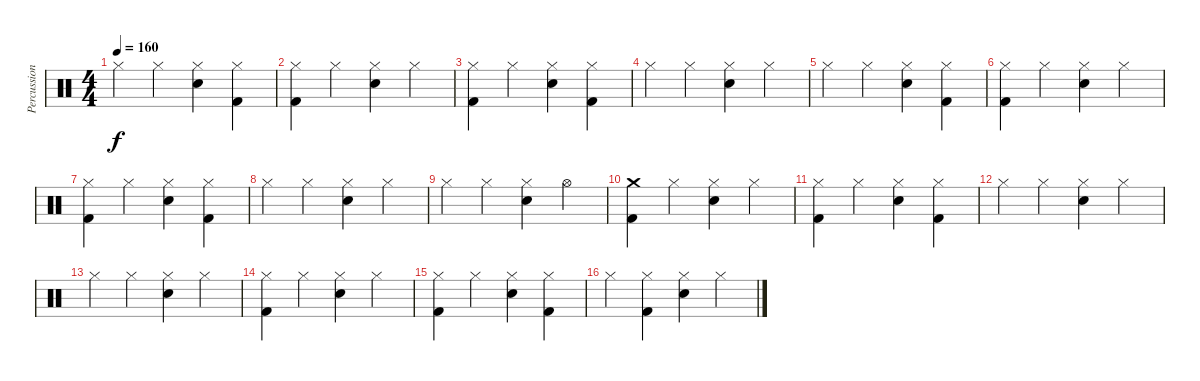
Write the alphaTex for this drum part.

\track ("Percussion" "Percussion") {instrument percussion}
\staff {score}
\articulation defaults
\ts (4 4)
\tempo 160
\clef neutral
\ks c "Hi-Hat (closed)".4{dy f} "Hi-Hat (closed)".4
("Hi-Hat (closed)" "Snare (hit) 2").4 ("Hi-Hat (closed)" "Kick (hit) 2").4 |
("Hi-Hat (closed)" "Kick (hit) 2").4 "Hi-Hat (closed)".4 ("Hi-Hat (closed)" "Snare (hit) 2").4 "Hi-Hat (closed)".4 |
("Hi-Hat (closed)" "Kick (hit) 2").4 "Hi-Hat (closed)".4 ("Hi-Hat (closed)" "Snare (hit) 2").4 ("Hi-Hat (closed)" "Kick (hit) 2").4 |
"Hi-Hat (closed)".4 "Hi-Hat (closed)".4 ("Hi-Hat (closed)" "Snare (hit) 2").4 "Hi-Hat (closed)".4 |
"Hi-Hat (closed)".4 "Hi-Hat (closed)".4 ("Hi-Hat (closed)" "Snare (hit) 2").4 ("Hi-Hat (closed)" "Kick (hit) 2").4 |
("Hi-Hat (closed)" "Kick (hit) 2").4 "Hi-Hat (closed)".4 ("Hi-Hat (closed)" "Snare (hit) 2").4 "Hi-Hat (closed)".4 |
("Hi-Hat (closed)" "Kick (hit) 2").4 "Hi-Hat (closed)".4 ("Hi-Hat (closed)" "Snare (hit) 2").4 ("Hi-Hat (closed)" "Kick (hit) 2").4 |
"Hi-Hat (closed)".4 "Hi-Hat (closed)".4 ("Hi-Hat (closed)" "Snare (hit) 2").4 "Hi-Hat (closed)".4 |
"Hi-Hat (closed)".4 "Hi-Hat (closed)".4 ("Hi-Hat (closed)" "Snare (hit) 2").4 "Hi-Hat (open)".4 |
("Crash medium (hit)" "Kick (hit) 2").4 "Hi-Hat (closed)".4 ("Hi-Hat (closed)" "Snare (hit) 2").4 "Hi-Hat (closed)".4 |
("Hi-Hat (closed)" "Kick (hit) 2").4 "Hi-Hat (closed)".4 ("Hi-Hat (closed)" "Snare (hit) 2").4 ("Hi-Hat (closed)" "Kick (hit) 2").4 |
"Hi-Hat (closed)".4 "Hi-Hat (closed)".4 ("Hi-Hat (closed)" "Snare (hit) 2").4 "Hi-Hat (closed)".4 |
"Hi-Hat (closed)".4 "Hi-Hat (closed)".4 ("Hi-Hat (closed)" "Snare (hit) 2").4 "Hi-Hat (closed)".4 |
("Hi-Hat (closed)" "Kick (hit) 2").4 "Hi-Hat (closed)".4 ("Hi-Hat (closed)" "Snare (hit) 2").4 "Hi-Hat (closed)".4 |
("Hi-Hat (closed)" "Kick (hit) 2").4 "Hi-Hat (closed)".4 ("Hi-Hat (closed)" "Snare (hit) 2").4 ("Hi-Hat (closed)" "Kick (hit) 2").4 |
"Hi-Hat (closed)".4 ("Hi-Hat (closed)" "Kick (hit) 2").4 ("Hi-Hat (closed)" "Snare (hit) 2").4 "Hi-Hat (closed)".4
